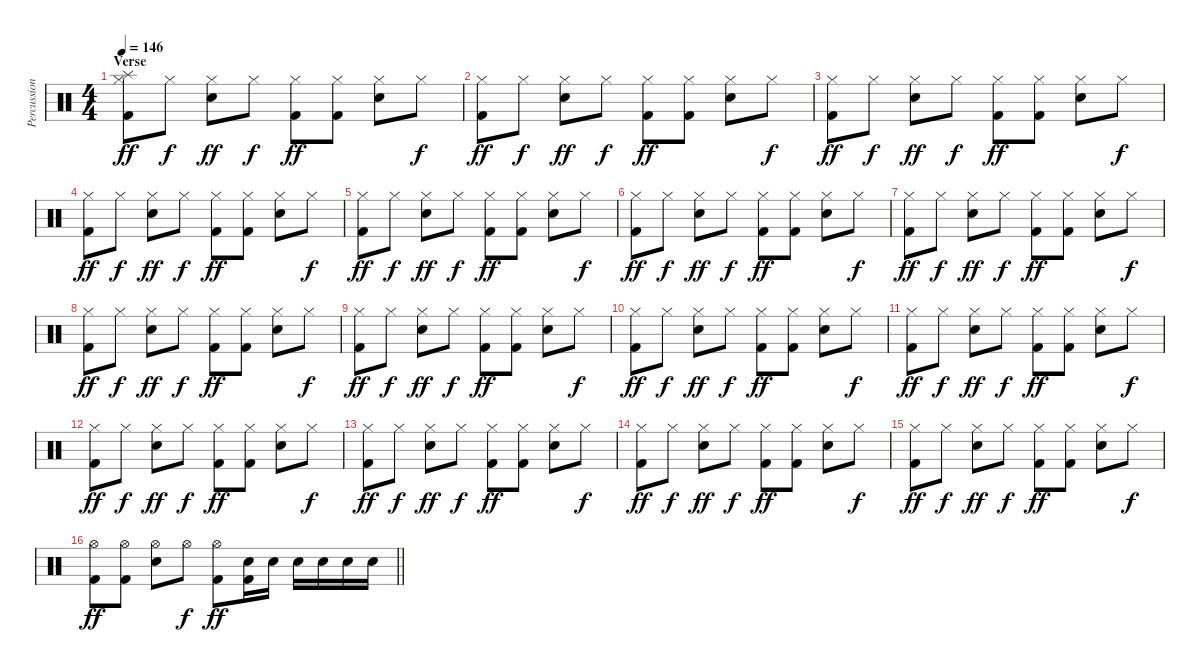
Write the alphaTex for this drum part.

\track ("Percussion" "Percussion") {instrument percussion}
\staff {score}
\articulation defaults
\ts (4 4)
\section ("" "Verse")
\tempo 146
\clef neutral
\ks c
("Splash (hit)" "Hi-Hat (closed)" "Kick (hit) 2").8{dy ff} "Hi-Hat (closed)".8{dy f} ("Hi-Hat (closed)" "Snare (hit) 2").8{dy ff} "Hi-Hat (closed)".8{dy f} ("Hi-Hat (closed)" "Kick (hit) 2").8{dy ff} ("Hi-Hat (closed)" "Kick (hit) 2").8 ("Hi-Hat (closed)" "Snare (hit) 2").8 "Hi-Hat (closed)".8{dy f} |
("Hi-Hat (closed)" "Kick (hit) 2").8{dy ff} "Hi-Hat (closed)".8{dy f} ("Hi-Hat (closed)" "Snare (hit) 2").8{dy ff} "Hi-Hat (closed)".8{dy f} ("Hi-Hat (closed)" "Kick (hit) 2").8{dy ff} ("Hi-Hat (closed)" "Kick (hit) 2").8 ("Hi-Hat (closed)" "Snare (hit) 2").8 "Hi-Hat (closed)".8{dy f} |
("Hi-Hat (closed)" "Kick (hit) 2").8{dy ff} "Hi-Hat (closed)".8{dy f} ("Hi-Hat (closed)" "Snare (hit) 2").8{dy ff} "Hi-Hat (closed)".8{dy f} ("Hi-Hat (closed)" "Kick (hit) 2").8{dy ff} ("Hi-Hat (closed)" "Kick (hit) 2").8 ("Hi-Hat (closed)" "Snare (hit) 2").8 "Hi-Hat (closed)".8{dy f} |
("Hi-Hat (closed)" "Kick (hit) 2").8{dy ff} "Hi-Hat (closed)".8{dy f} ("Hi-Hat (closed)" "Snare (hit) 2").8{dy ff} "Hi-Hat (closed)".8{dy f} ("Hi-Hat (closed)" "Kick (hit) 2").8{dy ff} ("Hi-Hat (closed)" "Kick (hit) 2").8 ("Hi-Hat (closed)" "Snare (hit) 2").8 "Hi-Hat (closed)".8{dy f} |
("Hi-Hat (closed)" "Kick (hit) 2").8{dy ff} "Hi-Hat (closed)".8{dy f} ("Hi-Hat (closed)" "Snare (hit) 2").8{dy ff} "Hi-Hat (closed)".8{dy f} ("Hi-Hat (closed)" "Kick (hit) 2").8{dy ff} ("Hi-Hat (closed)" "Kick (hit) 2").8 ("Hi-Hat (closed)" "Snare (hit) 2").8 "Hi-Hat (closed)".8{dy f} |
("Hi-Hat (closed)" "Kick (hit) 2").8{dy ff} "Hi-Hat (closed)".8{dy f} ("Hi-Hat (closed)" "Snare (hit) 2").8{dy ff} "Hi-Hat (closed)".8{dy f} ("Hi-Hat (closed)" "Kick (hit) 2").8{dy ff} ("Hi-Hat (closed)" "Kick (hit) 2").8 ("Hi-Hat (closed)" "Snare (hit) 2").8 "Hi-Hat (closed)".8{dy f} |
("Hi-Hat (closed)" "Kick (hit) 2").8{dy ff} "Hi-Hat (closed)".8{dy f} ("Hi-Hat (closed)" "Snare (hit) 2").8{dy ff} "Hi-Hat (closed)".8{dy f} ("Hi-Hat (closed)" "Kick (hit) 2").8{dy ff} ("Hi-Hat (closed)" "Kick (hit) 2").8 ("Hi-Hat (closed)" "Snare (hit) 2").8 "Hi-Hat (closed)".8{dy f} |
("Hi-Hat (closed)" "Kick (hit) 2").8{dy ff} "Hi-Hat (closed)".8{dy f} ("Hi-Hat (closed)" "Snare (hit) 2").8{dy ff} "Hi-Hat (closed)".8{dy f} ("Hi-Hat (closed)" "Kick (hit) 2").8{dy ff} ("Hi-Hat (closed)" "Kick (hit) 2").8 ("Hi-Hat (closed)" "Snare (hit) 2").8 "Hi-Hat (closed)".8{dy f} |
("Hi-Hat (closed)" "Kick (hit) 2").8{dy ff} "Hi-Hat (closed)".8{dy f} ("Hi-Hat (closed)" "Snare (hit) 2").8{dy ff} "Hi-Hat (closed)".8{dy f} ("Hi-Hat (closed)" "Kick (hit) 2").8{dy ff} ("Hi-Hat (closed)" "Kick (hit) 2").8 ("Hi-Hat (closed)" "Snare (hit) 2").8 "Hi-Hat (closed)".8{dy f} |
("Hi-Hat (closed)" "Kick (hit) 2").8{dy ff} "Hi-Hat (closed)".8{dy f} ("Hi-Hat (closed)" "Snare (hit) 2").8{dy ff} "Hi-Hat (closed)".8{dy f} ("Hi-Hat (closed)" "Kick (hit) 2").8{dy ff} ("Hi-Hat (closed)" "Kick (hit) 2").8 ("Hi-Hat (closed)" "Snare (hit) 2").8 "Hi-Hat (closed)".8{dy f} |
("Hi-Hat (closed)" "Kick (hit) 2").8{dy ff} "Hi-Hat (closed)".8{dy f} ("Hi-Hat (closed)" "Snare (hit) 2").8{dy ff} "Hi-Hat (closed)".8{dy f} ("Hi-Hat (closed)" "Kick (hit) 2").8{dy ff} ("Hi-Hat (closed)" "Kick (hit) 2").8 ("Hi-Hat (closed)" "Snare (hit) 2").8 "Hi-Hat (closed)".8{dy f} |
("Hi-Hat (closed)" "Kick (hit) 2").8{dy ff} "Hi-Hat (closed)".8{dy f} ("Hi-Hat (closed)" "Snare (hit) 2").8{dy ff} "Hi-Hat (closed)".8{dy f} ("Hi-Hat (closed)" "Kick (hit) 2").8{dy ff} ("Hi-Hat (closed)" "Kick (hit) 2").8 ("Hi-Hat (closed)" "Snare (hit) 2").8 "Hi-Hat (closed)".8{dy f} |
("Hi-Hat (closed)" "Kick (hit) 2").8{dy ff} "Hi-Hat (closed)".8{dy f} ("Hi-Hat (closed)" "Snare (hit) 2").8{dy ff} "Hi-Hat (closed)".8{dy f} ("Hi-Hat (closed)" "Kick (hit) 2").8{dy ff} ("Hi-Hat (closed)" "Kick (hit) 2").8 ("Hi-Hat (closed)" "Snare (hit) 2").8 "Hi-Hat (closed)".8{dy f} |
("Hi-Hat (closed)" "Kick (hit) 2").8{dy ff} "Hi-Hat (closed)".8{dy f} ("Hi-Hat (closed)" "Snare (hit) 2").8{dy ff} "Hi-Hat (closed)".8{dy f} ("Hi-Hat (closed)" "Kick (hit) 2").8{dy ff} ("Hi-Hat (closed)" "Kick (hit) 2").8 ("Hi-Hat (closed)" "Snare (hit) 2").8 "Hi-Hat (closed)".8{dy f} |
("Hi-Hat (closed)" "Kick (hit) 2").8{dy ff} "Hi-Hat (closed)".8{dy f} ("Hi-Hat (closed)" "Snare (hit) 2").8{dy ff} "Hi-Hat (closed)".8{dy f} ("Hi-Hat (closed)" "Kick (hit) 2").8{dy ff} ("Hi-Hat (closed)" "Kick (hit) 2").8 ("Hi-Hat (closed)" "Snare (hit) 2").8 "Hi-Hat (closed)".8{dy f} |
\barLineRight lightlight
("Hi-Hat (open)" "Kick (hit) 2").8{dy ff} ("Hi-Hat (open)" "Kick (hit) 2").8 ("Hi-Hat (open)" "Snare (hit) 2").8 "Hi-Hat (open)".8{dy f} ("Hi-Hat (open)" "Kick (hit) 2").8{dy ff} ("Snare (hit) 2" "Kick (hit) 2").16 "Snare (hit) 2".16 "Snare (hit) 2".16 "Snare (hit) 2".16 "Snare (hit) 2".16 "Snare (hit) 2".16
